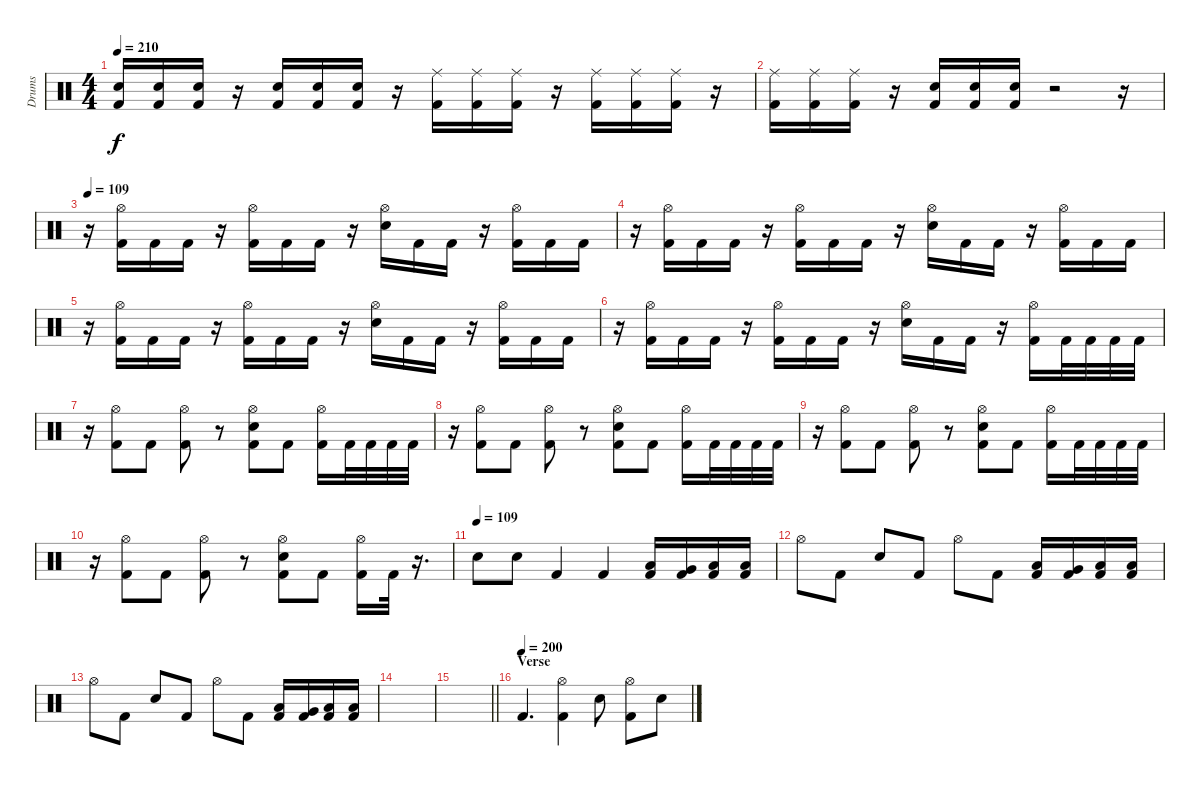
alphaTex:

\track ("Drums" "Drums") {instrument percussion}
\staff {score}
\articulation defaults
\ts (4 4)
\tempo 210
\clef neutral
\ks c
("Electric Snare (hit)" "Kick (hit) 2").16{dy f} ("Electric Snare (hit)" "Kick (hit) 2").16 ("Electric Snare (hit)" "Kick (hit) 2").16 r.16 ("Electric Snare (hit)" "Kick (hit) 2").16 ("Electric Snare (hit)" "Kick (hit) 2").16 ("Electric Snare (hit)" "Kick (hit) 2").16 r.16 ("Ride (middle)" "Kick (hit) 2").16 ("Ride (middle)" "Kick (hit) 2").16 ("Ride (middle)" "Kick (hit) 2").16 r.16 ("Ride (middle)" "Kick (hit) 2").16 ("Ride (middle)" "Kick (hit) 2").16 ("Ride (middle)" "Kick (hit) 2").16 r.16 |
("Ride (middle)" "Kick (hit) 2").16 ("Ride (middle)" "Kick (hit) 2").16 ("Ride (middle)" "Kick (hit) 2").16 r.16 ("Electric Snare (hit)" "Kick (hit) 2").16 ("Electric Snare (hit)" "Kick (hit) 2").16 ("Electric Snare (hit)" "Kick (hit) 2").16 r.2 r.16 |
\tempo 109
r.16 ("Hi-Hat (open)" "Kick (hit) 2").16 "Kick (hit) 2".16 "Kick (hit) 2".16 r.16 ("Hi-Hat (open)" "Kick (hit) 2").16 "Kick (hit) 2".16 "Kick (hit) 2".16 r.16 ("Hi-Hat (open)" "Electric Snare (hit)").16 "Kick (hit) 2".16 "Kick (hit) 2".16 r.16 ("Hi-Hat (open)" "Kick (hit) 2").16 "Kick (hit) 2".16 "Kick (hit) 2".16 |
r.16 ("Hi-Hat (open)" "Kick (hit) 2").16 "Kick (hit) 2".16 "Kick (hit) 2".16 r.16 ("Hi-Hat (open)" "Kick (hit) 2").16 "Kick (hit) 2".16 "Kick (hit) 2".16 r.16 ("Hi-Hat (open)" "Electric Snare (hit)").16 "Kick (hit) 2".16 "Kick (hit) 2".16 r.16 ("Hi-Hat (open)" "Kick (hit) 2").16 "Kick (hit) 2".16 "Kick (hit) 2".16 |
r.16 ("Hi-Hat (open)" "Kick (hit) 2").16 "Kick (hit) 2".16 "Kick (hit) 2".16 r.16 ("Hi-Hat (open)" "Kick (hit) 2").16 "Kick (hit) 2".16 "Kick (hit) 2".16 r.16 ("Hi-Hat (open)" "Electric Snare (hit)").16 "Kick (hit) 2".16 "Kick (hit) 2".16 r.16 ("Hi-Hat (open)" "Kick (hit) 2").16 "Kick (hit) 2".16 "Kick (hit) 2".16 |
r.16 ("Hi-Hat (open)" "Kick (hit) 2").16 "Kick (hit) 2".16 "Kick (hit) 2".16 r.16 ("Hi-Hat (open)" "Kick (hit) 2").16 "Kick (hit) 2".16 "Kick (hit) 2".16 r.16 ("Hi-Hat (open)" "Electric Snare (hit)").16 "Kick (hit) 2".16 "Kick (hit) 2".16 r.16 ("Hi-Hat (open)" "Kick (hit) 2").16 "Kick (hit) 2".32 "Kick (hit) 2".32 "Kick (hit) 2".32 "Kick (hit) 2".32 |
r.16 ("Hi-Hat (open)" "Kick (hit) 2").8 "Kick (hit) 2".8 ("Hi-Hat (open)" "Kick (hit) 2").8 r.8 ("Hi-Hat (open)" "Electric Snare (hit)" "Kick (hit) 2").8 "Kick (hit) 2".8 ("Hi-Hat (open)" "Kick (hit) 2").16 "Kick (hit) 2".32 "Kick (hit) 2".32 "Kick (hit) 2".32 "Kick (hit) 2".32 |
r.16 ("Hi-Hat (open)" "Kick (hit) 2").8 "Kick (hit) 2".8 ("Hi-Hat (open)" "Kick (hit) 2").8 r.8 ("Hi-Hat (open)" "Electric Snare (hit)" "Kick (hit) 2").8 "Kick (hit) 2".8 ("Hi-Hat (open)" "Kick (hit) 2").16 "Kick (hit) 2".32 "Kick (hit) 2".32 "Kick (hit) 2".32 "Kick (hit) 2".32 |
r.16 ("Hi-Hat (open)" "Kick (hit) 2").8 "Kick (hit) 2".8 ("Hi-Hat (open)" "Kick (hit) 2").8 r.8 ("Hi-Hat (open)" "Electric Snare (hit)" "Kick (hit) 2").8 "Kick (hit) 2".8 ("Hi-Hat (open)" "Kick (hit) 2").16 "Kick (hit) 2".32 "Kick (hit) 2".32 "Kick (hit) 2".32 "Kick (hit) 2".32 |
r.16 ("Hi-Hat (open)" "Kick (hit) 2").8 "Kick (hit) 2".8 ("Hi-Hat (open)" "Kick (hit) 2").8 r.8 ("Hi-Hat (open)" "Electric Snare (hit)" "Kick (hit) 2").8 "Kick (hit) 2".8 ("Hi-Hat (open)" "Kick (hit) 2").16 "Kick (hit) 2".32 r.16{d} |
\tempo (109)
"Electric Snare (hit)".8 "Electric Snare (hit)".8 "Kick (hit) 2".4 "Kick (hit) 2".4 ("Low Floor Tom (hit)" "Kick (hit) 2").16 ("Very Low Tom (hit)" "Kick (hit) 2").16 ("Low Tom (hit)" "Kick (hit) 2").16 ("Low Tom (hit)" "Kick (hit) 2").16 |
"Hi-Hat (open)".8 "Kick (hit) 2".8 "Electric Snare (hit)".8 "Kick (hit) 2".8 "Hi-Hat (open)".8 "Kick (hit) 2".8 ("Low Floor Tom (hit)" "Kick (hit) 2").16 ("Very Low Tom (hit)" "Kick (hit) 2").16 ("Low Tom (hit)" "Kick (hit) 2").16 ("Low Tom (hit)" "Kick (hit) 2").16 |
"Hi-Hat (open)".8 "Kick (hit) 2".8 "Electric Snare (hit)".8 "Kick (hit) 2".8 "Hi-Hat (open)".8 "Kick (hit) 2".8 ("Low Floor Tom (hit)" "Kick (hit) 2").16 ("Very Low Tom (hit)" "Kick (hit) 2").16 ("Low Tom (hit)" "Kick (hit) 2").16 ("Low Tom (hit)" "Kick (hit) 2").16 |
|
\barLineRight lightlight
|
\section ("" "Verse")
\tempo (200)
"Kick (hit) 2".4{d} ("Hi-Hat (open)" "Kick (hit) 2").4 "Electric Snare (hit)".8 ("Hi-Hat (open)" "Kick (hit) 2").8 "Electric Snare (hit)".8
